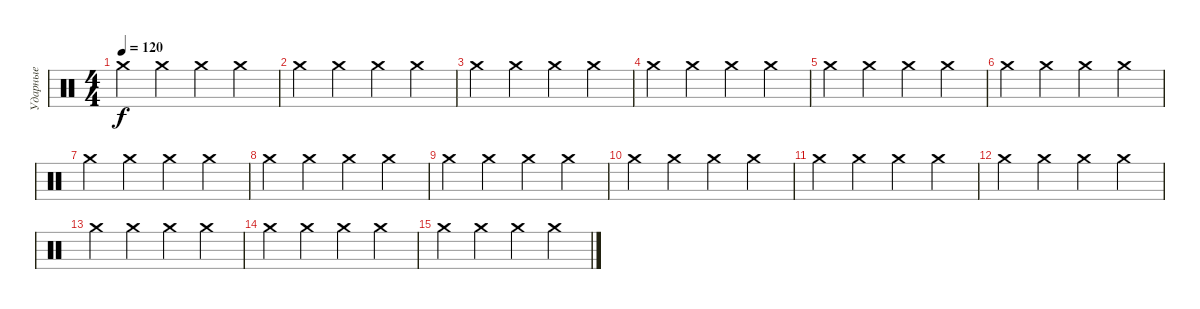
\track ("Ударные" "Ударные") {instrument percussion}
\staff {score}
\articulation defaults
\ts (4 4)
\tempo 120
\clef neutral
\ks c "Crash medium (hit)".4{dy f} "Crash medium (hit)".4 "Crash medium (hit)".4 "Crash medium (hit)".4
|
"Crash medium (hit)".4 "Crash medium (hit)".4 "Crash medium (hit)".4 "Crash medium (hit)".4 |
"Crash medium (hit)".4 "Crash medium (hit)".4 "Crash medium (hit)".4 "Crash medium (hit)".4 |
"Crash medium (hit)".4 "Crash medium (hit)".4 "Crash medium (hit)".4 "Crash medium (hit)".4 |
"Crash medium (hit)".4 "Crash medium (hit)".4 "Crash medium (hit)".4 "Crash medium (hit)".4 |
"Crash medium (hit)".4 "Crash medium (hit)".4 "Crash medium (hit)".4 "Crash medium (hit)".4 |
"Crash medium (hit)".4 "Crash medium (hit)".4 "Crash medium (hit)".4 "Crash medium (hit)".4 |
"Crash medium (hit)".4 "Crash medium (hit)".4 "Crash medium (hit)".4 "Crash medium (hit)".4 |
"Crash medium (hit)".4 "Crash medium (hit)".4 "Crash medium (hit)".4 "Crash medium (hit)".4 |
"Crash medium (hit)".4 "Crash medium (hit)".4 "Crash medium (hit)".4 "Crash medium (hit)".4 |
"Crash medium (hit)".4 "Crash medium (hit)".4 "Crash medium (hit)".4 "Crash medium (hit)".4 |
"Crash medium (hit)".4 "Crash medium (hit)".4 "Crash medium (hit)".4 "Crash medium (hit)".4 |
"Crash medium (hit)".4 "Crash medium (hit)".4 "Crash medium (hit)".4 "Crash medium (hit)".4 |
"Crash medium (hit)".4 "Crash medium (hit)".4 "Crash medium (hit)".4 "Crash medium (hit)".4 |
"Crash medium (hit)".4 "Crash medium (hit)".4 "Crash medium (hit)".4 "Crash medium (hit)".4
